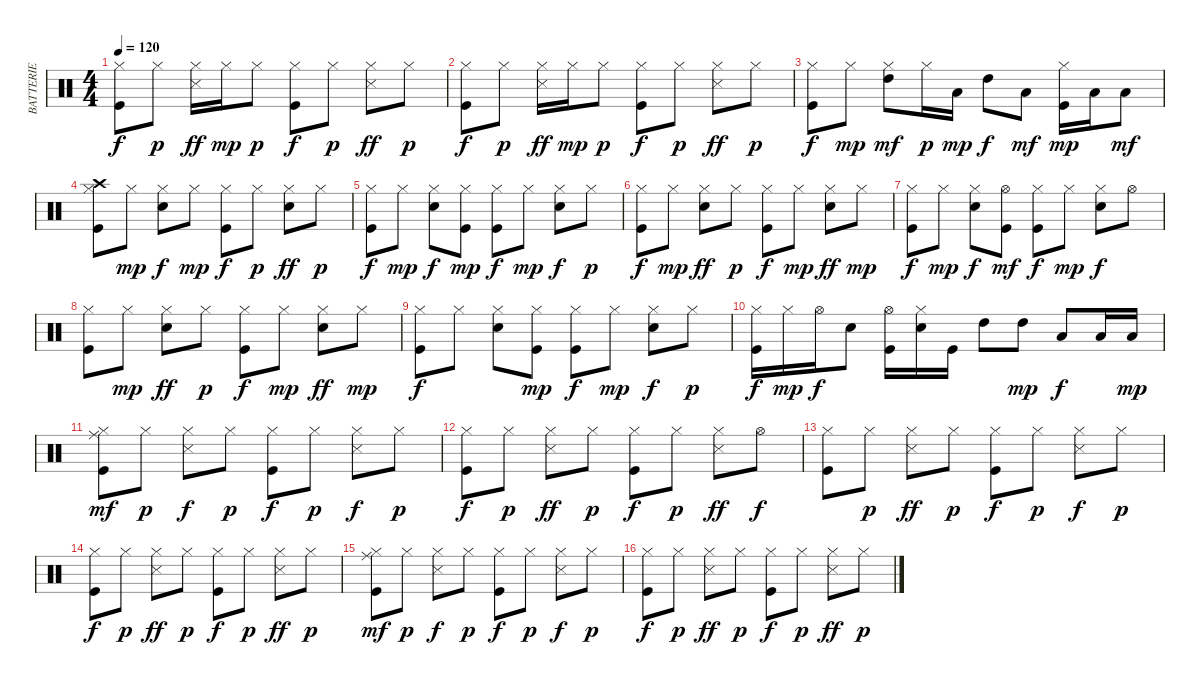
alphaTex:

\track ("BATTERIE" "BATTERIE") {instrument percussion}
\staff {score}
\articulation defaults
\ts (4 4)
\tempo 120
\clef neutral
\ks c
("Kick (hit)" "Hi-Hat (closed)").8{dy f} "Hi-Hat (closed)".8{dy p} ("Hi-Hat (closed)" "Snare (side stick) 3").16{dy ff} "Hi-Hat (closed)".16{dy mp} "Hi-Hat (closed)".8{dy p} ("Kick (hit)" "Hi-Hat (closed)").8{dy f} "Hi-Hat (closed)".8{dy p} ("Hi-Hat (closed)" "Snare (side stick) 3").8{dy ff} "Hi-Hat (closed)".8{dy p} |
("Kick (hit)" "Hi-Hat (closed)").8{dy f} "Hi-Hat (closed)".8{dy p} ("Hi-Hat (closed)" "Snare (side stick) 3").16{dy ff} "Hi-Hat (closed)".16{dy mp} "Hi-Hat (closed)".8{dy p} ("Kick (hit)" "Hi-Hat (closed)").8{dy f} "Hi-Hat (closed)".8{dy p} ("Hi-Hat (closed)" "Snare (side stick) 3").8{dy ff} "Hi-Hat (closed)".8{dy p} |
("Kick (hit)" "Hi-Hat (closed)").8{dy f} "Hi-Hat (closed)".8{dy mp} ("Hi-Hat (closed)" "High Tom (hit)").8{dy mf} "Hi-Hat (closed)".16{dy p} "Low Tom (hit)".16{dy mp} "High Tom (hit)".8{dy f} "Low Tom (hit)".8{dy mf} ("Kick (hit)" "Hi-Hat (closed)").16{dy mp} "Low Tom (hit)".16 "Low Floor Tom (hit)".8{dy mf} |
("Kick (hit)" "Hi-Hat (closed)" "Crash high (hit)").8 "Hi-Hat (closed)".8{dy mp} ("Snare (hit) 2" "Hi-Hat (closed)").8{dy f} "Hi-Hat (closed)".8{dy mp} ("Kick (hit)" "Hi-Hat (closed)").8{dy f} "Hi-Hat (closed)".8{dy p} ("Snare (hit) 2" "Hi-Hat (closed)").8{dy ff} "Hi-Hat (closed)".8{dy p} |
("Kick (hit)" "Hi-Hat (closed)").8{dy f} "Hi-Hat (closed)".8{dy mp} ("Snare (hit) 2" "Hi-Hat (closed)").8{dy f} ("Kick (hit)" "Hi-Hat (closed)").8{dy mp} ("Kick (hit)" "Hi-Hat (closed)").8{dy f} "Hi-Hat (closed)".8{dy mp} ("Snare (hit) 2" "Hi-Hat (closed)").8{dy f} "Hi-Hat (closed)".8{dy p} |
("Kick (hit)" "Hi-Hat (closed)").8{dy f} "Hi-Hat (closed)".8{dy mp} ("Snare (hit) 2" "Hi-Hat (closed)").8{dy ff} "Hi-Hat (closed)".8{dy p} ("Kick (hit)" "Hi-Hat (closed)").8{dy f} "Hi-Hat (closed)".8{dy mp} ("Snare (hit) 2" "Hi-Hat (closed)").8{dy ff} "Hi-Hat (closed)".8{dy mp} |
("Kick (hit)" "Hi-Hat (closed)").8{dy f} "Hi-Hat (closed)".8{dy mp} ("Snare (hit) 2" "Hi-Hat (closed)").8{dy f} ("Kick (hit)" "Hi-Hat (open)").8{dy mf} ("Kick (hit)" "Hi-Hat (closed)").8{dy f} "Hi-Hat (closed)".8{dy mp} ("Snare (hit) 2" "Hi-Hat (closed)").8{dy f} "Hi-Hat (open)".8 |
("Kick (hit)" "Hi-Hat (closed)").8 "Hi-Hat (closed)".8{dy mp} ("Snare (hit) 2" "Hi-Hat (closed)").8{dy ff} "Hi-Hat (closed)".8{dy p} ("Kick (hit)" "Hi-Hat (closed)").8{dy f} "Hi-Hat (closed)".8{dy mp} ("Snare (hit) 2" "Hi-Hat (closed)").8{dy ff} "Hi-Hat (closed)".8{dy mp} |
("Kick (hit)" "Hi-Hat (closed)").8{dy f} "Hi-Hat (closed)".8 ("Snare (hit) 2" "Hi-Hat (closed)").8 ("Kick (hit)" "Hi-Hat (closed)").8{dy mp} ("Kick (hit)" "Hi-Hat (closed)").8{dy f} "Hi-Hat (closed)".8{dy mp} ("Snare (hit) 2" "Hi-Hat (closed)").8{dy f} "Hi-Hat (closed)".8{dy p} |
("Kick (hit)" "Hi-Hat (closed)").16{dy f} "Hi-Hat (closed)".16{dy mp} "Hi-Hat (open)".16{dy f} "Snare (hit) 2".8 ("Kick (hit)" "Hi-Hat (open)").16 ("Snare (hit) 2" "Hi-Hat (closed)").16 "Kick (hit)".16 "High Tom (hit)".8 "High Tom (hit)".8{dy mp} "Low Tom (hit)".8{dy f} "Low Floor Tom (hit)".16 "Low Floor Tom (hit)".16{dy mp} |
("Kick (hit)" "Hi-Hat (closed)" "Ride (middle)").8{dy mf} "Hi-Hat (closed)".8{dy p} ("Hi-Hat (closed)" "Snare (side stick) 3").8{dy f} "Hi-Hat (closed)".8{dy p} ("Kick (hit)" "Hi-Hat (closed)").8{dy f} "Hi-Hat (closed)".8{dy p} ("Hi-Hat (closed)" "Snare (side stick) 3").8{dy f} "Hi-Hat (closed)".8{dy p} |
("Kick (hit)" "Hi-Hat (closed)").8{dy f} "Hi-Hat (closed)".8{dy p} ("Hi-Hat (closed)" "Snare (side stick) 3").8{dy ff} "Hi-Hat (closed)".8{dy p} ("Kick (hit)" "Hi-Hat (closed)").8{dy f} "Hi-Hat (closed)".8{dy p} ("Hi-Hat (closed)" "Snare (side stick) 3").8{dy ff} "Hi-Hat (open)".8{dy f} |
("Kick (hit)" "Hi-Hat (closed)").8 "Hi-Hat (closed)".8{dy p} ("Hi-Hat (closed)" "Snare (side stick) 3").8{dy ff} "Hi-Hat (closed)".8{dy p} ("Kick (hit)" "Hi-Hat (closed)").8{dy f} "Hi-Hat (closed)".8{dy p} ("Hi-Hat (closed)" "Snare (side stick) 3").8{dy f} "Hi-Hat (closed)".8{dy p} |
("Kick (hit)" "Hi-Hat (closed)").8{dy f} "Hi-Hat (closed)".8{dy p} ("Hi-Hat (closed)" "Snare (side stick) 3").8{dy ff} "Hi-Hat (closed)".8{dy p} ("Kick (hit)" "Hi-Hat (closed)").8{dy f} "Hi-Hat (closed)".8{dy p} ("Hi-Hat (closed)" "Snare (side stick) 3").8{dy ff} "Hi-Hat (closed)".8{dy p} |
("Kick (hit)" "Hi-Hat (closed)" "Ride (middle)").8{dy mf} "Hi-Hat (closed)".8{dy p} ("Hi-Hat (closed)" "Snare (side stick) 3").8{dy f} "Hi-Hat (closed)".8{dy p} ("Kick (hit)" "Hi-Hat (closed)").8{dy f} "Hi-Hat (closed)".8{dy p} ("Hi-Hat (closed)" "Snare (side stick) 3").8{dy f} "Hi-Hat (closed)".8{dy p} |
("Kick (hit)" "Hi-Hat (closed)").8{dy f} "Hi-Hat (closed)".8{dy p} ("Hi-Hat (closed)" "Snare (side stick) 3").8{dy ff} "Hi-Hat (closed)".8{dy p} ("Kick (hit)" "Hi-Hat (closed)").8{dy f} "Hi-Hat (closed)".8{dy p} ("Hi-Hat (closed)" "Snare (side stick) 3").8{dy ff} "Hi-Hat (closed)".8{dy p}
